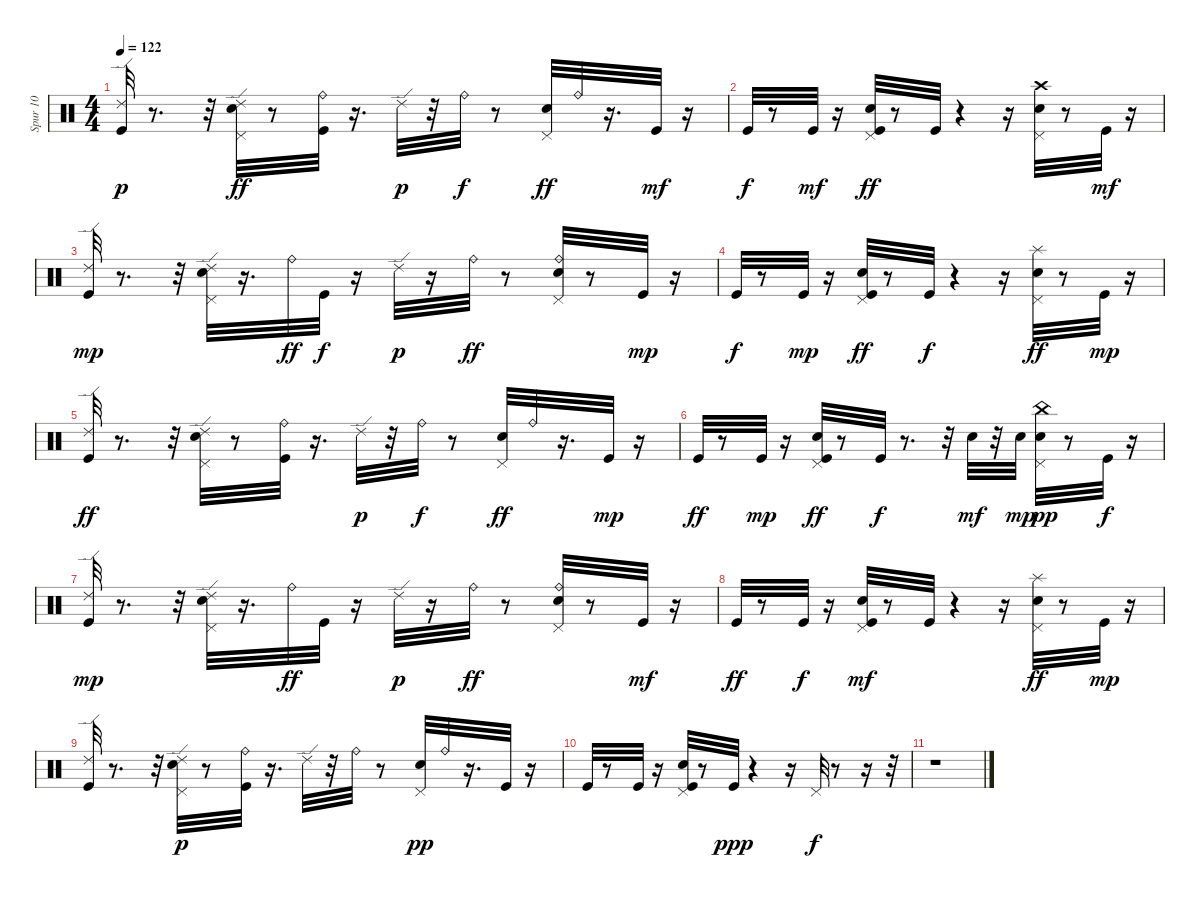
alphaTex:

\track ("Spur 10" "Spur 10") {instrument percussion}
\staff {score}
\articulation defaults
\ts (4 4)
\tempo 122
\clef neutral
\ks c
("Ride (edge) 2" "Kick (hit)").32{dy p} r.8{d} r.32 ("Pedal Hi-Hat (hit)" "Ride (edge) 2" "Electric Snare (hit)").32{dy ff} r.8 ("Ride (bell)" "Kick (hit)").32 r.16{d} "Ride (edge) 2".32{dy p} r.32 "Ride (bell)".32{dy f} r.8 ("Pedal Hi-Hat (hit)" "Electric Snare (hit)").32{dy ff} "Ride (bell)".32 r.16{d} "Kick (hit)".32{dy mf} r.16 |
"Kick (hit)".32{dy f} r.8 "Kick (hit)".32{dy mf} r.16 ("Pedal Hi-Hat (hit)" "Kick (hit)" "Electric Snare (hit)").32{dy ff} r.8 "Kick (hit)".32 r.4 r.16 ("Crash high (hit)" "Pedal Hi-Hat (hit)" "Electric Snare (hit)").32 r.8 "Kick (hit)".32{dy mf} r.16 |
("Kick (hit)" "Ride (edge) 2").32{dy mp} r.8{d} r.32 ("Pedal Hi-Hat (hit)" "Electric Snare (hit)" "Ride (edge) 2").32 r.16{d} "Ride (bell)".32{dy ff} "Kick (hit)".32{dy f} r.16 "Ride (edge) 2".32{dy p} r.16 "Ride (bell)".32{dy ff} r.8 ("Pedal Hi-Hat (hit)" "Electric Snare (hit)" "Ride (bell)").32 r.8 "Kick (hit)".32{dy mp} r.16 |
"Kick (hit)".32{dy f} r.8 "Kick (hit)".32{dy mp} r.16 ("Pedal Hi-Hat (hit)" "Kick (hit)" "Electric Snare (hit)").32{dy ff} r.8 "Kick (hit)".32{dy f} r.4 r.16 ("Pedal Hi-Hat (hit)" "Electric Snare (hit)" "Splash (hit)").32{dy ff} r.8 "Kick (hit)".32{dy mp} r.16 |
("Ride (edge) 2" "Kick (hit)").32{dy ff} r.8{d} r.32 ("Pedal Hi-Hat (hit)" "Ride (edge) 2" "Electric Snare (hit)").32 r.8 ("Ride (bell)" "Kick (hit)").32 r.16{d} "Ride (edge) 2".32{dy p} r.32 "Ride (bell)".32{dy f} r.8 ("Pedal Hi-Hat (hit)" "Electric Snare (hit)").32{dy ff} "Ride (bell)".32 r.16{d} "Kick (hit)".32{dy mp} r.16 |
"Kick (hit)".32{dy ff} r.8 "Kick (hit)".32{dy mp} r.16 ("Pedal Hi-Hat (hit)" "Kick (hit)" "Electric Snare (hit)").32{dy ff} r.8 "Kick (hit)".32{dy f} r.8{d} r.32 "Electric Snare (hit)".32{dy mf} r.32 "Electric Snare (hit)".32{dy mp} ("China (hit)" "Pedal Hi-Hat (hit)" "Electric Snare (hit)").32{dy pp} r.8 "Kick (hit)".32{dy f} r.16 |
("Kick (hit)" "Ride (edge) 2").32{dy mp} r.8{d} r.32 ("Pedal Hi-Hat (hit)" "Electric Snare (hit)" "Ride (edge) 2").32 r.16{d} "Ride (bell)".32{dy ff} "Kick (hit)".32 r.16 "Ride (edge) 2".32{dy p} r.16 "Ride (bell)".32{dy ff} r.8 ("Pedal Hi-Hat (hit)" "Electric Snare (hit)" "Ride (bell)").32 r.8 "Kick (hit)".32{dy mf} r.16 |
"Kick (hit)".32{dy ff} r.8 "Kick (hit)".32{dy f} r.16 ("Pedal Hi-Hat (hit)" "Kick (hit)" "Electric Snare (hit)").32{dy mf} r.8 "Kick (hit)".32 r.4 r.16 ("Pedal Hi-Hat (hit)" "Electric Snare (hit)" "Splash (hit)").32{dy ff} r.8 "Kick (hit)".32{dy mp} r.16 |
("Ride (edge) 2" "Kick (hit)").32 r.8{d} r.32 ("Pedal Hi-Hat (hit)" "Ride (edge) 2" "Electric Snare (hit)").32{dy p} r.8 ("Ride (bell)" "Kick (hit)").32 r.16{d} "Ride (edge) 2".32 r.32 "Ride (bell)".32 r.8 ("Pedal Hi-Hat (hit)" "Electric Snare (hit)").32{dy pp} "Ride (bell)".32 r.16{d} "Kick (hit)".32 r.16 |
"Kick (hit)".32 r.8 "Kick (hit)".32 r.16 ("Pedal Hi-Hat (hit)" "Electric Snare (hit)" "Kick (hit)").32 r.8 "Kick (hit)".32{dy ppp} r.4 r.16 "Pedal Hi-Hat (hit)".32{dy f} r.8 r.16 r.32 |
r.1
